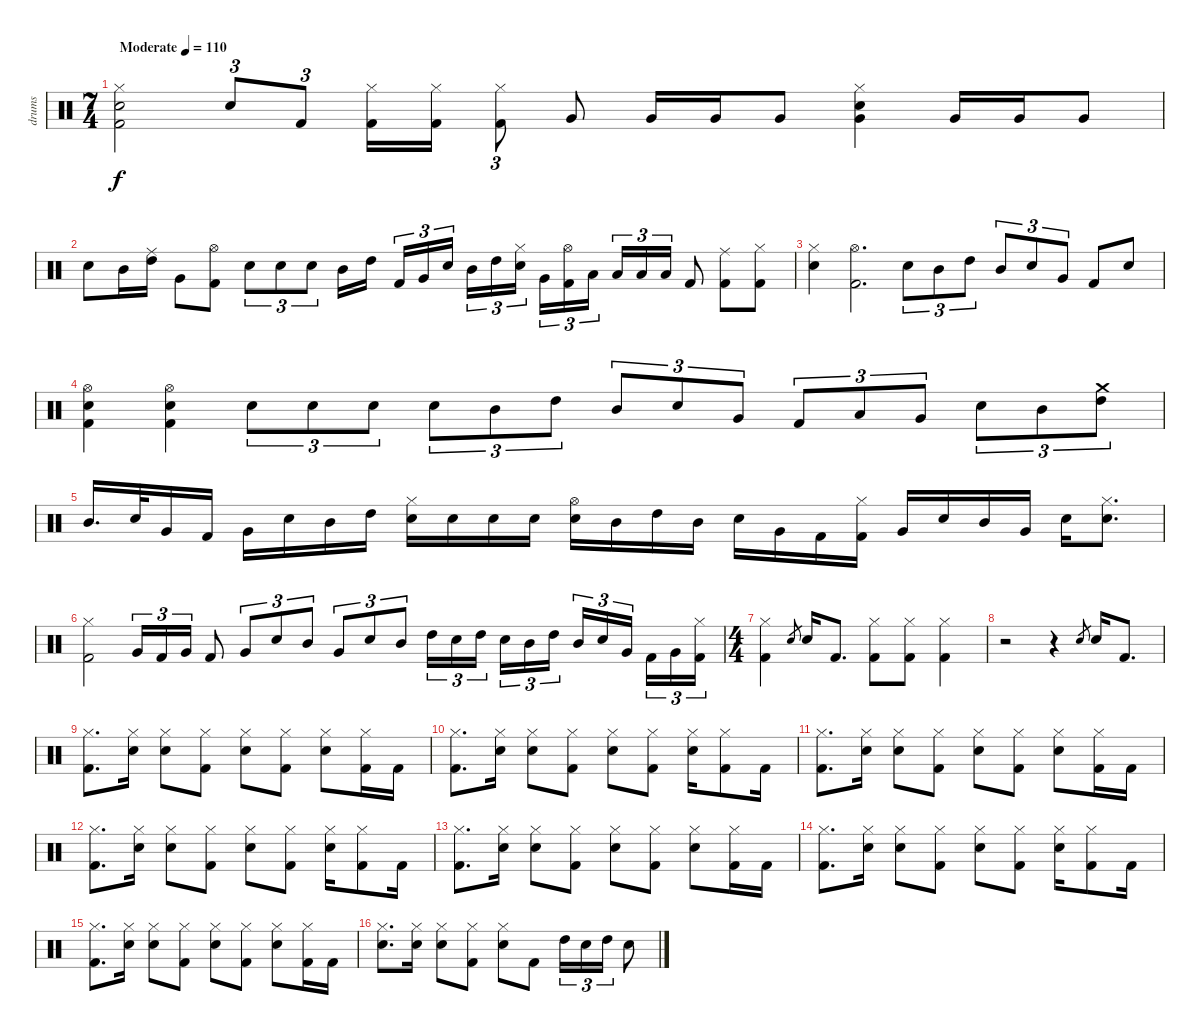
\track ("drums" "drums") {instrument percussion}
\staff {score}
\articulation defaults
\ts (7 4)
\tempo (110 "Moderate")
\clef neutral
\ks c
("Hi-Hat (closed)" "Kick (hit) 2" "Snare (hit) 2").2{dy f} "Snare (hit) 2".8{tu (3 2)} "Kick (hit) 2".8{tu (3 2)} ("Hi-Hat (closed)" "Kick (hit) 2").16 ("Hi-Hat (closed)" "Kick (hit) 2").16 ("Kick (hit) 2" "Hi-Hat (closed)").8{tu (3 2)} "Very Low Tom (hit)".8 "Very Low Tom (hit)".16 "Very Low Tom (hit)".16 "Very Low Tom (hit)".8 ("Very Low Tom (hit)" "Snare (hit) 2" "Hi-Hat (closed)").4 "Very Low Tom (hit)".16 "Very Low Tom (hit)".16 "Very Low Tom (hit)".8 |
"Snare (hit) 2".8 "Mid Tom (hit)".16 ("Ride (middle)" "High Tom (hit)").16 "Very Low Tom (hit)".8 ("Kick (hit) 2" "Hi-Hat (open)").8 "Snare (hit) 2".8{tu (3 2)} "Snare (hit) 2".8{tu (3 2)} "Snare (hit) 2".8{tu (3 2)} "Mid Tom (hit)".16 "High Tom (hit)".16{beam splitsecondary} "Kick (hit) 2".16{tu (3 2)} "Very Low Tom (hit)".16{tu (3 2)} "Snare (hit) 2".16{tu (3 2)} "Mid Tom (hit)".16{tu (3 2)} "High Tom (hit)".16{tu (3 2)} ("Hi-Hat (closed)" "Snare (hit) 2").16{tu (3 2) beam splitsecondary} "Very Low Tom (hit)".16{tu (3 2)} ("Kick (hit) 2" "Hi-Hat (open)").16{tu (3 2)} "Low Floor Tom (hit)".16{tu (3 2)} "Low Floor Tom (hit)".16{tu (3 2)} "Low Floor Tom (hit)".16{tu (3 2)} "Low Floor Tom (hit)".16{tu (3 2)} "Kick (hit) 2".8 ("Ride (middle)" "Kick (hit) 2").8 ("Hi-Hat (closed)" "Kick (hit) 2").8 |
("Hi-Hat (closed)" "Snare (hit) 2").4 ("Kick (hit) 2" "Hi-Hat (open)").2{d} "Snare (hit) 2".8{tu (3 2)} "Mid Tom (hit)".8{tu (3 2)} "High Tom (hit)".8{tu (3 2)} "Mid Tom (hit)".8{tu (3 2)} "Snare (hit) 2".8{tu (3 2)} "Very Low Tom (hit)".8{tu (3 2)} "Kick (hit) 2".8 "Snare (hit) 2".8 |
("Snare (hit) 2" "Hi-Hat (open)" "Kick (hit) 2").4 ("Snare (hit) 2" "Hi-Hat (open)" "Kick (hit) 2").4 "Snare (hit) 2".8{tu (3 2)} "Snare (hit) 2".8{tu (3 2)} "Snare (hit) 2".8{tu (3 2)} "Snare (hit) 2".8{tu (3 2)} "Mid Tom (hit)".8{tu (3 2)} "High Tom (hit)".8{tu (3 2)} "Mid Tom (hit)".8{tu (3 2)} "Snare (hit) 2".8{tu (3 2)} "Very Low Tom (hit)".8{tu (3 2)} "Kick (hit) 2".8{tu (3 2)} "Low Floor Tom (hit)".8{tu (3 2)} "Very Low Tom (hit)".8{tu (3 2)} "Snare (hit) 2".8{tu (3 2)} "Mid Tom (hit)".8{tu (3 2)} ("High Tom (hit)" "Crash medium (hit)").8{tu (3 2)} |
"Mid Tom (hit)".16{d} "Snare (hit) 2".32 "Very Low Tom (hit)".16 "Kick (hit) 2".16 "Very Low Tom (hit)".16 "Snare (hit) 2".16 "Mid Tom (hit)".16 "High Tom (hit)".16 ("Snare (hit) 2" "Hi-Hat (closed)").16 "Snare (hit) 2".16 "Snare (hit) 2".16 "Snare (hit) 2".16 ("Hi-Hat (open)" "Snare (hit) 2").16 "Mid Tom (hit)".16 "High Tom (hit)".16 "Mid Tom (hit)".16 "Snare (hit) 2".16 "Very Low Tom (hit)".16 "Kick (hit) 2".16 ("Hi-Hat (closed)" "Kick (hit) 2").16 "Very Low Tom (hit)".16 "Snare (hit) 2".16 "Mid Tom (hit)".16 "Very Low Tom (hit)".16 "Snare (hit) 2".16 ("Hi-Hat (closed)" "Snare (hit) 2").8{d} |
("Hi-Hat (closed)" "Kick (hit) 2").2 "Very Low Tom (hit)".16{tu (3 2)} "Kick (hit) 2".16{tu (3 2)} "Very Low Tom (hit)".16{tu (3 2)} "Kick (hit) 2".8 "Very Low Tom (hit)".8{tu (3 2)} "Snare (hit) 2".8{tu (3 2)} "Mid Tom (hit)".8{tu (3 2)} "Very Low Tom (hit)".8{tu (3 2)} "Snare (hit) 2".8{tu (3 2)} "Mid Tom (hit)".8{tu (3 2)} "High Tom (hit)".16{tu (3 2)} "Snare (hit) 2".16{tu (3 2)} "High Tom (hit)".16{tu (3 2) beam splitsecondary} "Snare (hit) 2".16{tu (3 2)} "Mid Tom (hit)".16{tu (3 2)} "High Tom (hit)".16{tu (3 2)} "Mid Tom (hit)".16{tu (3 2)} "Snare (hit) 2".16{tu (3 2)} "Very Low Tom (hit)".16{tu (3 2) beam splitsecondary} "Kick (hit) 2".16{tu (3 2)} "Very Low Tom (hit)".16{tu (3 2)} ("Kick (hit) 2" "Hi-Hat (closed)").16{tu (3 2)} |
\ts (4 4)
("Hi-Hat (closed)" "Kick (hit) 2").4 "Snare (hit) 2".8{gr} "Snare (hit) 2".16 "Kick (hit) 2".8{d} ("Hi-Hat (closed)" "Kick (hit) 2").8 ("Hi-Hat (closed)" "Kick (hit) 2").8 ("Kick (hit) 2" "Hi-Hat (closed)").4 |
r.2 r.4 "Snare (hit) 2".8{gr} "Snare (hit) 2".16 "Kick (hit) 2".8{d} |
("Hi-Hat (closed)" "Kick (hit) 2").8{d} ("Snare (hit) 2" "Hi-Hat (closed)").16 ("Snare (hit) 2" "Hi-Hat (closed)").8 ("Kick (hit) 2" "Hi-Hat (closed)").8 ("Hi-Hat (closed)" "Snare (hit) 2").8 ("Hi-Hat (closed)" "Kick (hit) 2").8 ("Hi-Hat (closed)" "Snare (hit) 2").8 ("Hi-Hat (closed)" "Kick (hit) 2").16 "Kick (hit) 2".16 |
("Kick (hit) 2" "Hi-Hat (closed)").8{d} ("Snare (hit) 2" "Hi-Hat (closed)").16 ("Hi-Hat (closed)" "Snare (hit) 2").8 ("Hi-Hat (closed)" "Kick (hit) 2").8 ("Snare (hit) 2" "Hi-Hat (closed)").8 ("Hi-Hat (closed)" "Kick (hit) 2").8 ("Hi-Hat (closed)" "Snare (hit) 2").16 ("Hi-Hat (closed)" "Kick (hit) 2").8 "Kick (hit) 2".16 |
("Hi-Hat (closed)" "Kick (hit) 2").8{d} ("Snare (hit) 2" "Hi-Hat (closed)").16 ("Snare (hit) 2" "Hi-Hat (closed)").8 ("Kick (hit) 2" "Hi-Hat (closed)").8 ("Hi-Hat (closed)" "Snare (hit) 2").8 ("Hi-Hat (closed)" "Kick (hit) 2").8 ("Hi-Hat (closed)" "Snare (hit) 2").8 ("Hi-Hat (closed)" "Kick (hit) 2").16 "Kick (hit) 2".16 |
("Kick (hit) 2" "Hi-Hat (closed)").8{d} ("Snare (hit) 2" "Hi-Hat (closed)").16 ("Hi-Hat (closed)" "Snare (hit) 2").8 ("Hi-Hat (closed)" "Kick (hit) 2").8 ("Snare (hit) 2" "Hi-Hat (closed)").8 ("Hi-Hat (closed)" "Kick (hit) 2").8 ("Hi-Hat (closed)" "Snare (hit) 2").16 ("Hi-Hat (closed)" "Kick (hit) 2").8 "Kick (hit) 2".16 |
("Hi-Hat (closed)" "Kick (hit) 2").8{d} ("Snare (hit) 2" "Hi-Hat (closed)").16 ("Snare (hit) 2" "Hi-Hat (closed)").8 ("Kick (hit) 2" "Hi-Hat (closed)").8 ("Hi-Hat (closed)" "Snare (hit) 2").8 ("Hi-Hat (closed)" "Kick (hit) 2").8 ("Hi-Hat (closed)" "Snare (hit) 2").8 ("Hi-Hat (closed)" "Kick (hit) 2").16 "Kick (hit) 2".16 |
("Kick (hit) 2" "Hi-Hat (closed)").8{d} ("Snare (hit) 2" "Hi-Hat (closed)").16 ("Hi-Hat (closed)" "Snare (hit) 2").8 ("Hi-Hat (closed)" "Kick (hit) 2").8 ("Snare (hit) 2" "Hi-Hat (closed)").8 ("Hi-Hat (closed)" "Kick (hit) 2").8 ("Hi-Hat (closed)" "Snare (hit) 2").16 ("Hi-Hat (closed)" "Kick (hit) 2").8 "Kick (hit) 2".16 |
("Hi-Hat (closed)" "Kick (hit) 2").8{d} ("Snare (hit) 2" "Hi-Hat (closed)").16 ("Snare (hit) 2" "Hi-Hat (closed)").8 ("Kick (hit) 2" "Hi-Hat (closed)").8 ("Hi-Hat (closed)" "Snare (hit) 2").8 ("Hi-Hat (closed)" "Kick (hit) 2").8 ("Hi-Hat (closed)" "Snare (hit) 2").8 ("Hi-Hat (closed)" "Kick (hit) 2").16 "Kick (hit) 2".16 |
("Hi-Hat (closed)" "Snare (hit) 2").8{d} ("Hi-Hat (closed)" "Snare (hit) 2").16 ("Hi-Hat (closed)" "Snare (hit) 2").8 ("Kick (hit) 2" "Hi-Hat (closed)").8 ("Hi-Hat (closed)" "Snare (hit) 2").8 "Kick (hit) 2".8 "High Tom (hit)".16{tu (3 2)} "Snare (hit) 2".16{tu (3 2)} "High Tom (hit)".16{tu (3 2)} "Snare (hit) 2".8
